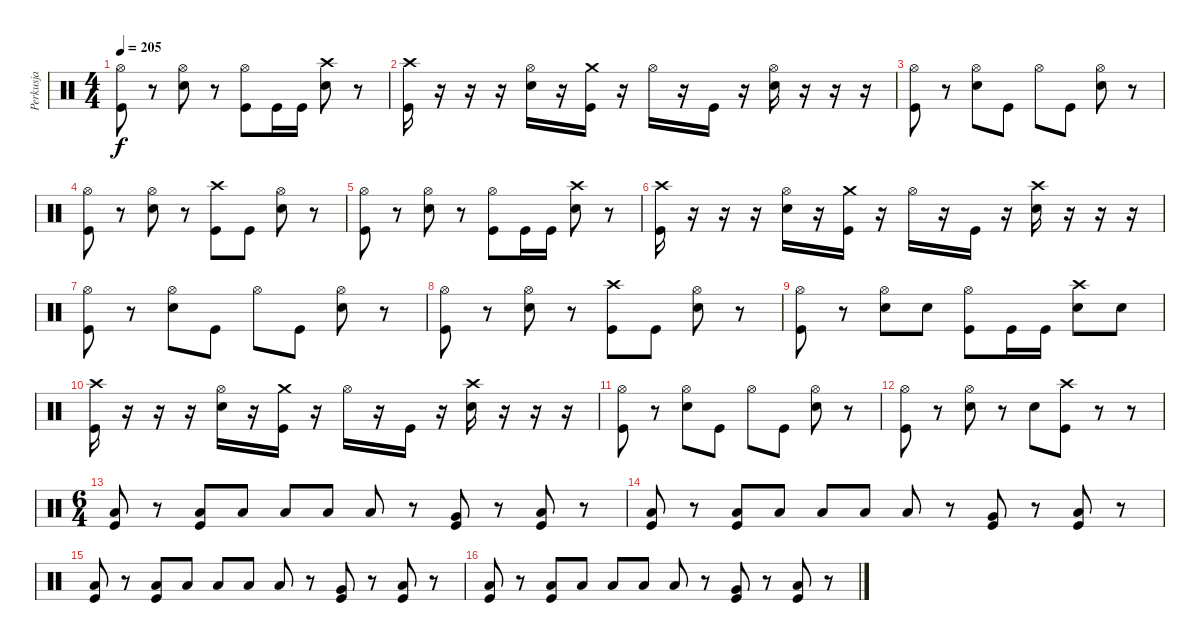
\track ("Perkusja" "Perkusja") {instrument percussion}
\staff {score}
\articulation defaults
\ts (4 4)
\tempo 205
\clef neutral
\ks c
("Hi-Hat (open)" "Kick (hit)").8{dy f} r.8 ("Hi-Hat (open)" "Snare (hit) 2").8 r.8 ("Hi-Hat (open)" "Kick (hit)").8 "Kick (hit)".16 "Kick (hit)".16 ("Crash high (hit)" "Snare (hit) 2").8 r.8 |
("Crash high (hit)" "Kick (hit)").16 r.16 r.16 r.16 ("Hi-Hat (open)" "Snare (hit) 2").16 r.16 ("Crash medium (hit)" "Kick (hit)").16 r.16 "Hi-Hat (open)".16 r.16 "Kick (hit)".16 r.16 ("Hi-Hat (open)" "Snare (hit) 2").16 r.16 r.16 r.16 |
("Hi-Hat (open)" "Kick (hit)").8 r.8 ("Hi-Hat (open)" "Snare (hit) 2").8 "Kick (hit)".8 "Hi-Hat (open)".8 "Kick (hit)".8 ("Hi-Hat (open)" "Snare (hit) 2").8 r.8 |
("Hi-Hat (open)" "Kick (hit)").8 r.8 ("Hi-Hat (open)" "Snare (hit) 2").8 r.8 ("Crash high (hit)" "Kick (hit)").8 "Kick (hit)".8 ("Hi-Hat (open)" "Snare (hit) 2").8 r.8 |
("Hi-Hat (open)" "Kick (hit)").8 r.8 ("Hi-Hat (open)" "Snare (hit) 2").8 r.8 ("Hi-Hat (open)" "Kick (hit)").8 "Kick (hit)".16 "Kick (hit)".16 ("Crash high (hit)" "Snare (hit) 2").8 r.8 |
("Crash high (hit)" "Kick (hit)").16 r.16 r.16 r.16 ("Hi-Hat (open)" "Snare (hit) 2").16 r.16 ("Crash medium (hit)" "Kick (hit)").16 r.16 "Hi-Hat (open)".16 r.16 "Kick (hit)".16 r.16 ("Crash high (hit)" "Snare (hit) 2").16 r.16 r.16 r.16 |
("Hi-Hat (open)" "Kick (hit)").8 r.8 ("Hi-Hat (open)" "Snare (hit) 2").8 "Kick (hit)".8 "Hi-Hat (open)".8 "Kick (hit)".8 ("Hi-Hat (open)" "Snare (hit) 2").8 r.8 |
("Hi-Hat (open)" "Kick (hit)").8 r.8 ("Hi-Hat (open)" "Snare (hit) 2").8 r.8 ("Crash high (hit)" "Kick (hit)").8 "Kick (hit)".8 ("Hi-Hat (open)" "Snare (hit) 2").8 r.8 |
("Hi-Hat (open)" "Kick (hit)").8 r.8 ("Hi-Hat (open)" "Snare (hit) 2").8 "Snare (hit) 2".8 ("Hi-Hat (open)" "Kick (hit)").8 "Kick (hit)".16 "Kick (hit)".16 ("Crash high (hit)" "Snare (hit) 2").8 "Snare (hit) 2".8 |
("Crash high (hit)" "Kick (hit)").16 r.16 r.16 r.16 ("Hi-Hat (open)" "Snare (hit) 2").16 r.16 ("Crash medium (hit)" "Kick (hit)").16 r.16 "Hi-Hat (open)".16 r.16 "Kick (hit)".16 r.16 ("Crash high (hit)" "Snare (hit) 2").16 r.16 r.16 r.16 |
("Hi-Hat (open)" "Kick (hit)").8 r.8 ("Hi-Hat (open)" "Snare (hit) 2").8 "Kick (hit)".8 "Hi-Hat (open)".8 "Kick (hit)".8 ("Hi-Hat (open)" "Snare (hit) 2").8 r.8 |
("Hi-Hat (open)" "Kick (hit)").8 r.8 ("Hi-Hat (open)" "Snare (hit) 2").8 r.8 "Snare (hit) 2".8 ("Crash high (hit)" "Kick (hit)").8 r.8 r.8 |
\ts (6 4)
("Low Tom (hit)" "Kick (hit)").8 r.8 ("Low Tom (hit)" "Kick (hit)").8 "Low Tom (hit)".8 "Low Tom (hit)".8 "Low Tom (hit)".8 "Low Tom (hit)".8 r.8 ("Very Low Tom (hit)" "Kick (hit)").8 r.8 ("Low Tom (hit)" "Kick (hit)").8 r.8 |
("Low Tom (hit)" "Kick (hit)").8 r.8 ("Low Tom (hit)" "Kick (hit)").8 "Low Tom (hit)".8 "Low Tom (hit)".8 "Low Tom (hit)".8 "Low Tom (hit)".8 r.8 ("Very Low Tom (hit)" "Kick (hit)").8 r.8 ("Low Tom (hit)" "Kick (hit)").8 r.8 |
("Low Tom (hit)" "Kick (hit)").8 r.8 ("Low Tom (hit)" "Kick (hit)").8 "Low Tom (hit)".8 "Low Tom (hit)".8 "Low Tom (hit)".8 "Low Tom (hit)".8 r.8 ("Very Low Tom (hit)" "Kick (hit)").8 r.8 ("Low Tom (hit)" "Kick (hit)").8 r.8 |
("Low Tom (hit)" "Kick (hit)").8 r.8 ("Low Tom (hit)" "Kick (hit)").8 "Low Tom (hit)".8 "Low Tom (hit)".8 "Low Tom (hit)".8 "Low Tom (hit)".8 r.8 ("Very Low Tom (hit)" "Kick (hit)").8 r.8 ("Low Tom (hit)" "Kick (hit)").8 r.8
